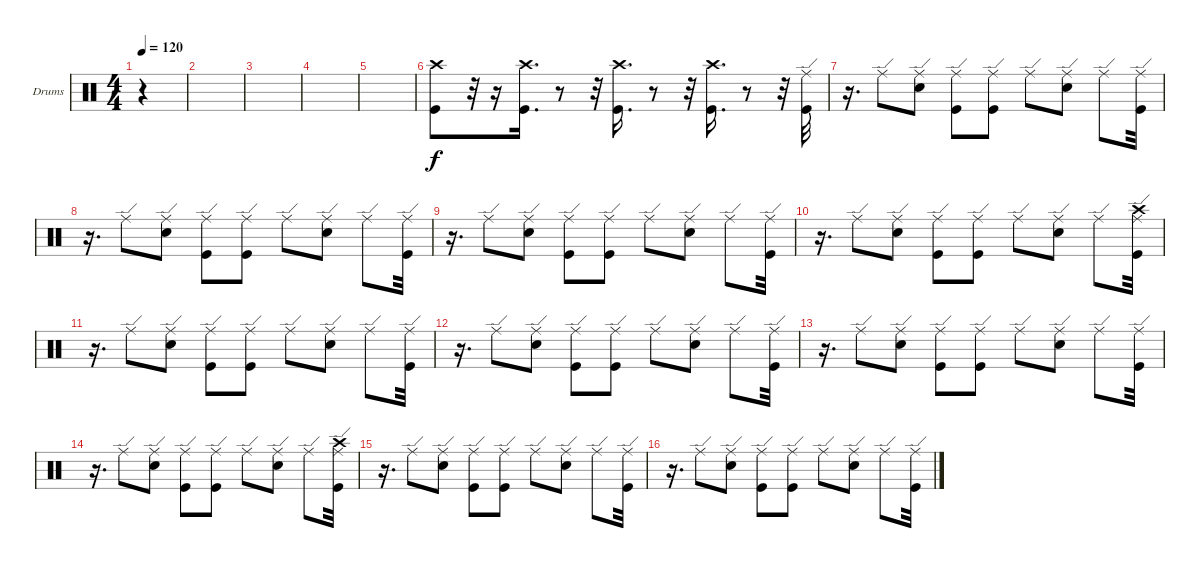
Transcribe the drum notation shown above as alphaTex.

\bracketExtendMode groupsimilarinstruments
\firstSystemTrackNameOrientation horizontal
\otherSystemsTrackNameOrientation horizontal
\track ("Drumkit" "Drums") {instrument percussion}
\staff {score}
\articulation defaults
\ts (4 4)
\tempo 120
\clef neutral
\ks c
r.4{dy f} |
|
|
|
|
\scale
0.474178 ("Kick (hit)" "Crash high (hit)").8 r.32 r.16 ("Kick (hit)" "Crash high (hit)").16{d} r.8 r.32 ("Kick (hit)" "Crash high (hit)").16{d} r.8 r.32 ("Kick (hit)" "Crash high (hit)").16{d} r.8 r.32 ("Kick (hit)" "Ride (edge)").32 |
\scale
0.262911 r.16{d} "Ride (edge)".8 ("Snare (hit) 2" "Ride (edge)").8 ("Kick (hit)" "Ride (edge)").8 ("Kick (hit)" "Ride (edge)").8 "Ride (edge)".8 ("Snare (hit) 2" "Ride (edge)").8 "Ride (edge)".8 ("Kick (hit)" "Ride (edge)").32 |
\scale
0.262911 r.16{d} "Ride (edge)".8 ("Snare (hit) 2" "Ride (edge)").8 ("Kick (hit)" "Ride (edge)").8 ("Kick (hit)" "Ride (edge)").8 "Ride (edge)".8 ("Snare (hit) 2" "Ride (edge)").8 "Ride (edge)".8 ("Kick (hit)" "Ride (edge)").32 |
\scale
0.333333 r.16{d} "Ride (edge)".8 ("Snare (hit) 2" "Ride (edge)").8 ("Kick (hit)" "Ride (edge)").8 ("Kick (hit)" "Ride (edge)").8 "Ride (edge)".8 ("Snare (hit) 2" "Ride (edge)").8 "Ride (edge)".8 ("Kick (hit)" "Ride (edge)").32 |
\scale
0.333333 r.16{d} "Ride (edge)".8 ("Snare (hit) 2" "Ride (edge)").8 ("Kick (hit)" "Ride (edge)").8 ("Kick (hit)" "Ride (edge)").8 "Ride (edge)".8 ("Snare (hit) 2" "Ride (edge)").8 "Ride (edge)".8 ("Kick (hit)" "Ride (edge)" "Crash high (hit)").32 |
\scale
0.333333 r.16{d} "Ride (edge)".8 ("Snare (hit) 2" "Ride (edge)").8 ("Kick (hit)" "Ride (edge)").8 ("Kick (hit)" "Ride (edge)").8 "Ride (edge)".8 ("Snare (hit) 2" "Ride (edge)").8 "Ride (edge)".8 ("Kick (hit)" "Ride (edge)").32 |
\scale
0.333333 r.16{d} "Ride (edge)".8 ("Snare (hit) 2" "Ride (edge)").8 ("Kick (hit)" "Ride (edge)").8 ("Kick (hit)" "Ride (edge)").8 "Ride (edge)".8 ("Snare (hit) 2" "Ride (edge)").8 "Ride (edge)".8 ("Kick (hit)" "Ride (edge)").32 |
\scale
0.333333 r.16{d} "Ride (edge)".8 ("Snare (hit) 2" "Ride (edge)").8 ("Kick (hit)" "Ride (edge)").8 ("Kick (hit)" "Ride (edge)").8 "Ride (edge)".8 ("Snare (hit) 2" "Ride (edge)").8 "Ride (edge)".8 ("Kick (hit)" "Ride (edge)").32 |
\scale
0.333333 r.16{d} "Ride (edge)".8 ("Snare (hit) 2" "Ride (edge)").8 ("Kick (hit)" "Ride (edge)").8 ("Kick (hit)" "Ride (edge)").8 "Ride (edge)".8 ("Snare (hit) 2" "Ride (edge)").8 "Ride (edge)".8 ("Kick (hit)" "Ride (edge)" "Crash high (hit)").32 |
\scale
0.333333 r.16{d} "Ride (edge)".8 ("Snare (hit) 2" "Ride (edge)").8 ("Kick (hit)" "Ride (edge)").8 ("Kick (hit)" "Ride (edge)").8 "Ride (edge)".8 ("Snare (hit) 2" "Ride (edge)").8 "Ride (edge)".8 ("Kick (hit)" "Ride (edge)").32 |
r.16{d} "Ride (edge)".8 ("Snare (hit) 2" "Ride (edge)").8 ("Kick (hit)" "Ride (edge)").8 ("Kick (hit)" "Ride (edge)").8 "Ride (edge)".8 ("Snare (hit) 2" "Ride (edge)").8 "Ride (edge)".8 ("Kick (hit)" "Ride (edge)").32
